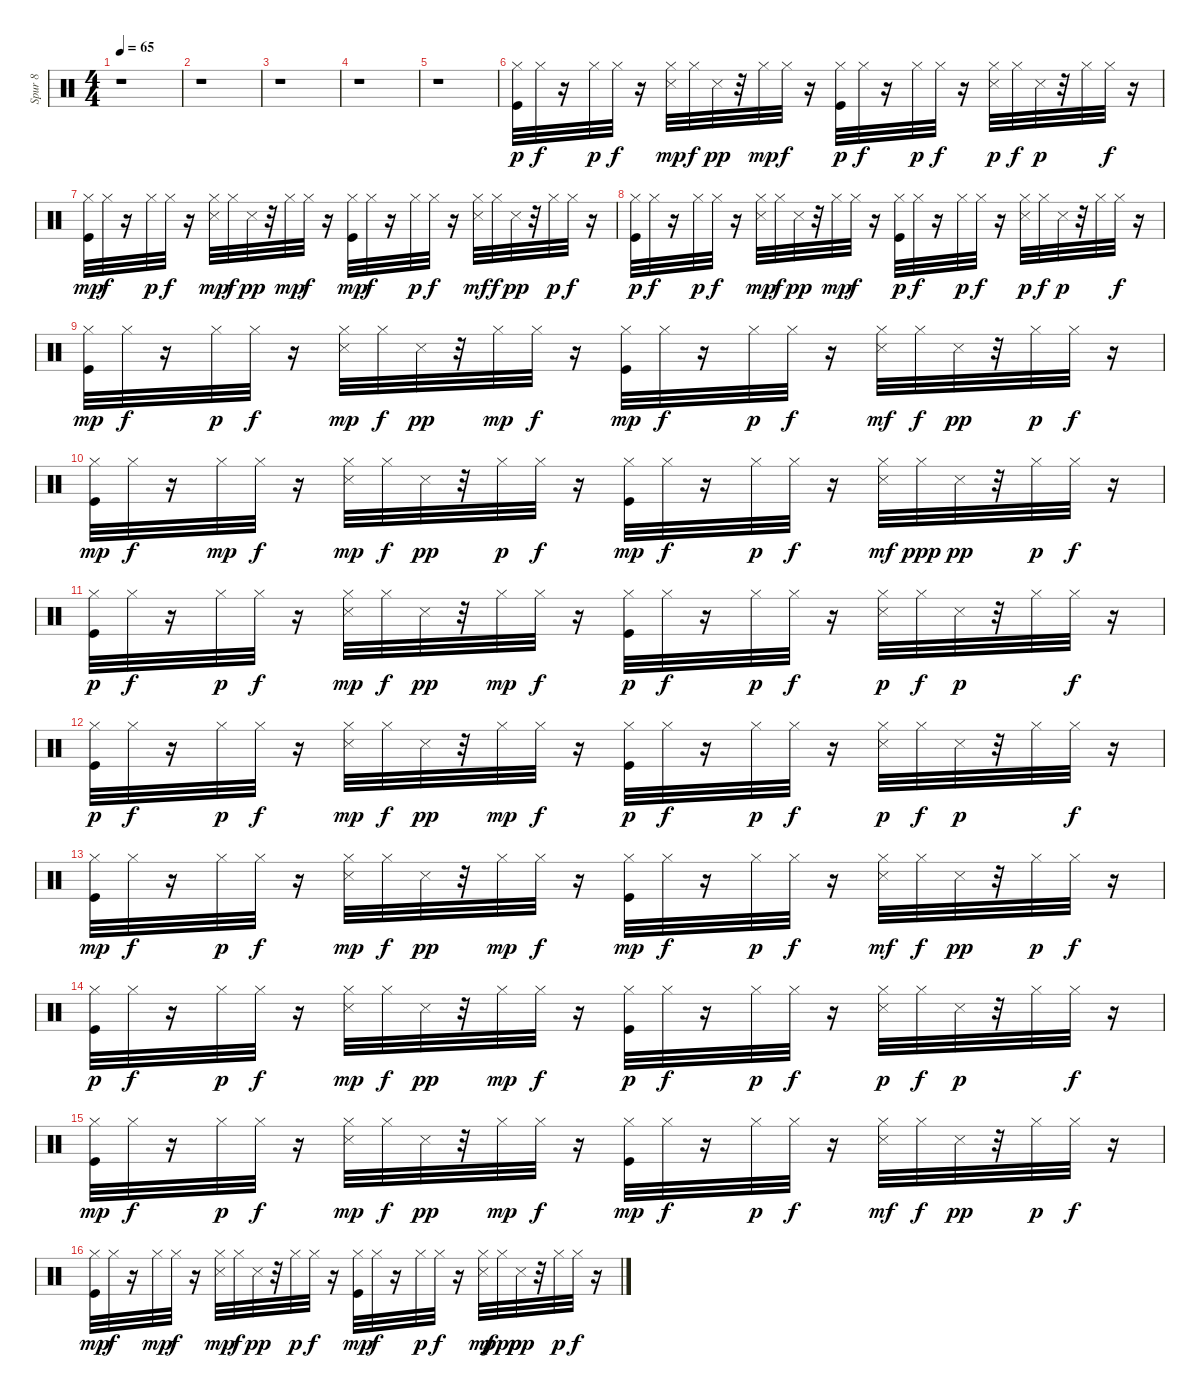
\track ("Spur 8" "Spur 8") {instrument percussion}
\staff {score}
\articulation defaults
\ts (4 4)
\tempo 65
\clef neutral
\ks c
r.1{dy p} |
r.1 |
r.1 |
r.1 |
r.1 |
("Kick (hit)" "Hi-Hat (closed)").32 "Hi-Hat (closed)".32{dy f} r.16 "Hi-Hat (closed)".32{dy p} "Hi-Hat (closed)".32{dy f} r.16 ("Hi-Hat (closed)" "Snare (side stick) 3").32{dy mp} "Hi-Hat (closed)".32{dy f} "Snare (side stick) 3".32{dy pp} r.32 "Hi-Hat (closed)".32{dy mp} "Hi-Hat (closed)".32{dy f} r.16 ("Kick (hit)" "Hi-Hat (closed)").32{dy p} "Hi-Hat (closed)".32{dy f} r.16 "Hi-Hat (closed)".32{dy p} "Hi-Hat (closed)".32{dy f} r.16 ("Hi-Hat (closed)" "Snare (side stick) 3").32{dy p} "Hi-Hat (closed)".32{dy f} "Snare (side stick) 3".32{dy p} r.32 "Hi-Hat (closed)".32 "Hi-Hat (closed)".32{dy f} r.16 |
("Kick (hit)" "Hi-Hat (closed)").32{dy mp} "Hi-Hat (closed)".32{dy f} r.16 "Hi-Hat (closed)".32{dy p} "Hi-Hat (closed)".32{dy f} r.16 ("Hi-Hat (closed)" "Snare (side stick) 3").32{dy mp} "Hi-Hat (closed)".32{dy f} "Snare (side stick) 3".32{dy pp} r.32 "Hi-Hat (closed)".32{dy mp} "Hi-Hat (closed)".32{dy f} r.16 ("Kick (hit)" "Hi-Hat (closed)").32{dy mp} "Hi-Hat (closed)".32{dy f} r.16 "Hi-Hat (closed)".32{dy p} "Hi-Hat (closed)".32{dy f} r.16 ("Hi-Hat (closed)" "Snare (side stick) 3").32{dy mf} "Hi-Hat (closed)".32{dy f} "Snare (side stick) 3".32{dy pp} r.32 "Hi-Hat (closed)".32{dy p} "Hi-Hat (closed)".32{dy f} r.16 |
("Kick (hit)" "Hi-Hat (closed)").32{dy p} "Hi-Hat (closed)".32{dy f} r.16 "Hi-Hat (closed)".32{dy p} "Hi-Hat (closed)".32{dy f} r.16 ("Hi-Hat (closed)" "Snare (side stick) 3").32{dy mp} "Hi-Hat (closed)".32{dy f} "Snare (side stick) 3".32{dy pp} r.32 "Hi-Hat (closed)".32{dy mp} "Hi-Hat (closed)".32{dy f} r.16 ("Kick (hit)" "Hi-Hat (closed)").32{dy p} "Hi-Hat (closed)".32{dy f} r.16 "Hi-Hat (closed)".32{dy p} "Hi-Hat (closed)".32{dy f} r.16 ("Hi-Hat (closed)" "Snare (side stick) 3").32{dy p} "Hi-Hat (closed)".32{dy f} "Snare (side stick) 3".32{dy p} r.32 "Hi-Hat (closed)".32 "Hi-Hat (closed)".32{dy f} r.16 |
("Kick (hit)" "Hi-Hat (closed)").32{dy mp} "Hi-Hat (closed)".32{dy f} r.16 "Hi-Hat (closed)".32{dy p} "Hi-Hat (closed)".32{dy f} r.16 ("Hi-Hat (closed)" "Snare (side stick) 3").32{dy mp} "Hi-Hat (closed)".32{dy f} "Snare (side stick) 3".32{dy pp} r.32 "Hi-Hat (closed)".32{dy mp} "Hi-Hat (closed)".32{dy f} r.16 ("Kick (hit)" "Hi-Hat (closed)").32{dy mp} "Hi-Hat (closed)".32{dy f} r.16 "Hi-Hat (closed)".32{dy p} "Hi-Hat (closed)".32{dy f} r.16 ("Hi-Hat (closed)" "Snare (side stick) 3").32{dy mf} "Hi-Hat (closed)".32{dy f} "Snare (side stick) 3".32{dy pp} r.32 "Hi-Hat (closed)".32{dy p} "Hi-Hat (closed)".32{dy f} r.16 |
("Kick (hit)" "Hi-Hat (closed)").32{dy mp} "Hi-Hat (closed)".32{dy f} r.16 "Hi-Hat (closed)".32{dy mp} "Hi-Hat (closed)".32{dy f} r.16 ("Hi-Hat (closed)" "Snare (side stick) 3").32{dy mp} "Hi-Hat (closed)".32{dy f} "Snare (side stick) 3".32{dy pp} r.32 "Hi-Hat (closed)".32{dy p} "Hi-Hat (closed)".32{dy f} r.16 ("Kick (hit)" "Hi-Hat (closed)").32{dy mp} "Hi-Hat (closed)".32{dy f} r.16 "Hi-Hat (closed)".32{dy p} "Hi-Hat (closed)".32{dy f} r.16 ("Hi-Hat (closed)" "Snare (side stick) 3").32{dy mf} "Hi-Hat (closed)".32{dy ppp} "Snare (side stick) 3".32{dy pp} r.32 "Hi-Hat (closed)".32{dy p} "Hi-Hat (closed)".32{dy f} r.16 |
("Kick (hit)" "Hi-Hat (closed)").32{dy p} "Hi-Hat (closed)".32{dy f} r.16 "Hi-Hat (closed)".32{dy p} "Hi-Hat (closed)".32{dy f} r.16 ("Hi-Hat (closed)" "Snare (side stick) 3").32{dy mp} "Hi-Hat (closed)".32{dy f} "Snare (side stick) 3".32{dy pp} r.32 "Hi-Hat (closed)".32{dy mp} "Hi-Hat (closed)".32{dy f} r.16 ("Kick (hit)" "Hi-Hat (closed)").32{dy p} "Hi-Hat (closed)".32{dy f} r.16 "Hi-Hat (closed)".32{dy p} "Hi-Hat (closed)".32{dy f} r.16 ("Hi-Hat (closed)" "Snare (side stick) 3").32{dy p} "Hi-Hat (closed)".32{dy f} "Snare (side stick) 3".32{dy p} r.32 "Hi-Hat (closed)".32 "Hi-Hat (closed)".32{dy f} r.16 |
("Kick (hit)" "Hi-Hat (closed)").32{dy p} "Hi-Hat (closed)".32{dy f} r.16 "Hi-Hat (closed)".32{dy p} "Hi-Hat (closed)".32{dy f} r.16 ("Hi-Hat (closed)" "Snare (side stick) 3").32{dy mp} "Hi-Hat (closed)".32{dy f} "Snare (side stick) 3".32{dy pp} r.32 "Hi-Hat (closed)".32{dy mp} "Hi-Hat (closed)".32{dy f} r.16 ("Kick (hit)" "Hi-Hat (closed)").32{dy p} "Hi-Hat (closed)".32{dy f} r.16 "Hi-Hat (closed)".32{dy p} "Hi-Hat (closed)".32{dy f} r.16 ("Hi-Hat (closed)" "Snare (side stick) 3").32{dy p} "Hi-Hat (closed)".32{dy f} "Snare (side stick) 3".32{dy p} r.32 "Hi-Hat (closed)".32 "Hi-Hat (closed)".32{dy f} r.16 |
("Kick (hit)" "Hi-Hat (closed)").32{dy mp} "Hi-Hat (closed)".32{dy f} r.16 "Hi-Hat (closed)".32{dy p} "Hi-Hat (closed)".32{dy f} r.16 ("Hi-Hat (closed)" "Snare (side stick) 3").32{dy mp} "Hi-Hat (closed)".32{dy f} "Snare (side stick) 3".32{dy pp} r.32 "Hi-Hat (closed)".32{dy mp} "Hi-Hat (closed)".32{dy f} r.16 ("Kick (hit)" "Hi-Hat (closed)").32{dy mp} "Hi-Hat (closed)".32{dy f} r.16 "Hi-Hat (closed)".32{dy p} "Hi-Hat (closed)".32{dy f} r.16 ("Hi-Hat (closed)" "Snare (side stick) 3").32{dy mf} "Hi-Hat (closed)".32{dy f} "Snare (side stick) 3".32{dy pp} r.32 "Hi-Hat (closed)".32{dy p} "Hi-Hat (closed)".32{dy f} r.16 |
("Kick (hit)" "Hi-Hat (closed)").32{dy p} "Hi-Hat (closed)".32{dy f} r.16 "Hi-Hat (closed)".32{dy p} "Hi-Hat (closed)".32{dy f} r.16 ("Hi-Hat (closed)" "Snare (side stick) 3").32{dy mp} "Hi-Hat (closed)".32{dy f} "Snare (side stick) 3".32{dy pp} r.32 "Hi-Hat (closed)".32{dy mp} "Hi-Hat (closed)".32{dy f} r.16 ("Kick (hit)" "Hi-Hat (closed)").32{dy p} "Hi-Hat (closed)".32{dy f} r.16 "Hi-Hat (closed)".32{dy p} "Hi-Hat (closed)".32{dy f} r.16 ("Hi-Hat (closed)" "Snare (side stick) 3").32{dy p} "Hi-Hat (closed)".32{dy f} "Snare (side stick) 3".32{dy p} r.32 "Hi-Hat (closed)".32 "Hi-Hat (closed)".32{dy f} r.16 |
("Kick (hit)" "Hi-Hat (closed)").32{dy mp} "Hi-Hat (closed)".32{dy f} r.16 "Hi-Hat (closed)".32{dy p} "Hi-Hat (closed)".32{dy f} r.16 ("Hi-Hat (closed)" "Snare (side stick) 3").32{dy mp} "Hi-Hat (closed)".32{dy f} "Snare (side stick) 3".32{dy pp} r.32 "Hi-Hat (closed)".32{dy mp} "Hi-Hat (closed)".32{dy f} r.16 ("Kick (hit)" "Hi-Hat (closed)").32{dy mp} "Hi-Hat (closed)".32{dy f} r.16 "Hi-Hat (closed)".32{dy p} "Hi-Hat (closed)".32{dy f} r.16 ("Hi-Hat (closed)" "Snare (side stick) 3").32{dy mf} "Hi-Hat (closed)".32{dy f} "Snare (side stick) 3".32{dy pp} r.32 "Hi-Hat (closed)".32{dy p} "Hi-Hat (closed)".32{dy f} r.16 |
("Kick (hit)" "Hi-Hat (closed)").32{dy mp} "Hi-Hat (closed)".32{dy f} r.16 "Hi-Hat (closed)".32{dy mp} "Hi-Hat (closed)".32{dy f} r.16 ("Hi-Hat (closed)" "Snare (side stick) 3").32{dy mp} "Hi-Hat (closed)".32{dy f} "Snare (side stick) 3".32{dy pp} r.32 "Hi-Hat (closed)".32{dy p} "Hi-Hat (closed)".32{dy f} r.16 ("Kick (hit)" "Hi-Hat (closed)").32{dy mp} "Hi-Hat (closed)".32{dy f} r.16 "Hi-Hat (closed)".32{dy p} "Hi-Hat (closed)".32{dy f} r.16 ("Hi-Hat (closed)" "Snare (side stick) 3").32{dy mf} "Hi-Hat (closed)".32{dy ppp} "Snare (side stick) 3".32{dy pp} r.32 "Hi-Hat (closed)".32{dy p} "Hi-Hat (closed)".32{dy f} r.16
